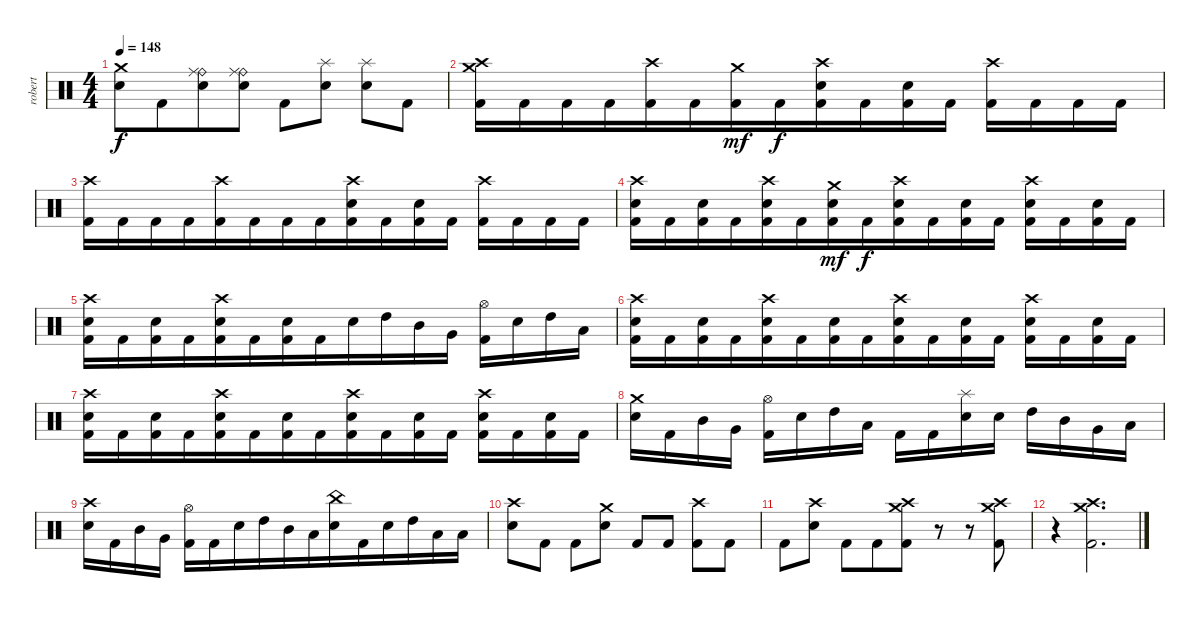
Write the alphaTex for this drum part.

\track ("robert" "robert") {instrument percussion}
\staff {score}
\articulation defaults
\ts (4 4)
\tempo 148
\clef neutral
\ks c
("Electric Snare (hit)" "Crash medium (hit)").8{dy f} "Kick (hit) 2".8{beam merge} ("Electric Snare (hit)" "Ride (bell)" "Ride (middle)").8 ("Electric Snare (hit)" "Ride (bell)" "Ride (middle)").8 "Kick (hit) 2".8 ("Electric Snare (hit)" "Splash (hit)").8 ("Electric Snare (hit)" "Splash (hit)").8 "Kick (hit) 2".8 |
("Kick (hit) 2" "Crash high (hit)" "Crash medium (hit)").16 "Kick (hit) 2".16 "Kick (hit) 2".16 "Kick (hit) 2".16{beam merge} ("Kick (hit) 2" "Crash high (hit)").16 "Kick (hit) 2".16 ("Kick (hit) 2" "Crash medium (hit)").16{dy mf} "Kick (hit) 2".16{dy f beam merge} ("Kick (hit) 2" "Electric Snare (hit)" "Crash high (hit)").16 "Kick (hit) 2".16 ("Electric Snare (hit)" "Kick (hit) 2").16{beam merge} "Kick (hit) 2".16 ("Kick (hit) 2" "Crash high (hit)").16 "Kick (hit) 2".16 "Kick (hit) 2".16 "Kick (hit) 2".16 |
("Kick (hit) 2" "Crash high (hit)").16 "Kick (hit) 2".16 "Kick (hit) 2".16 "Kick (hit) 2".16{beam merge} ("Kick (hit) 2" "Crash high (hit)").16 "Kick (hit) 2".16 "Kick (hit) 2".16 "Kick (hit) 2".16{beam merge} ("Kick (hit) 2" "Electric Snare (hit)" "Crash high (hit)").16 "Kick (hit) 2".16 ("Electric Snare (hit)" "Kick (hit) 2").16{beam merge} "Kick (hit) 2".16 ("Kick (hit) 2" "Crash high (hit)").16 "Kick (hit) 2".16 "Kick (hit) 2".16 "Kick (hit) 2".16 |
("Kick (hit) 2" "Crash high (hit)" "Electric Snare (hit)").16 "Kick (hit) 2".16 ("Kick (hit) 2" "Electric Snare (hit)").16 "Kick (hit) 2".16{beam merge} ("Kick (hit) 2" "Crash high (hit)" "Electric Snare (hit)").16 "Kick (hit) 2".16 ("Kick (hit) 2" "Electric Snare (hit)" "Crash medium (hit)").16{dy mf} "Kick (hit) 2".16{dy f beam merge} ("Kick (hit) 2" "Electric Snare (hit)" "Crash high (hit)").16 "Kick (hit) 2".16 ("Electric Snare (hit)" "Kick (hit) 2").16{beam merge} "Kick (hit) 2".16 ("Kick (hit) 2" "Electric Snare (hit)" "Crash high (hit)").16 "Kick (hit) 2".16 ("Kick (hit) 2" "Electric Snare (hit)").16 "Kick (hit) 2".16 |
("Kick (hit) 2" "Crash high (hit)" "Electric Snare (hit)").16 "Kick (hit) 2".16 ("Kick (hit) 2" "Electric Snare (hit)").16 "Kick (hit) 2".16{beam merge} ("Kick (hit) 2" "Crash high (hit)" "Electric Snare (hit)").16 "Kick (hit) 2".16 ("Kick (hit) 2" "Electric Snare (hit)").16 "Kick (hit) 2".16{beam merge} "Electric Snare (hit)".16 "High Tom (hit)".16 "Mid Tom (hit)".16 "Very Low Tom (hit)".16 ("Hi-Hat (open)" "Kick (hit) 2").16 "Electric Snare (hit)".16 "High Tom (hit)".16 "Low Tom (hit)".16 |
("Kick (hit) 2" "Crash high (hit)" "Electric Snare (hit)").16 "Kick (hit) 2".16 ("Kick (hit) 2" "Electric Snare (hit)").16 "Kick (hit) 2".16{beam merge} ("Kick (hit) 2" "Crash high (hit)" "Electric Snare (hit)").16 "Kick (hit) 2".16 ("Kick (hit) 2" "Electric Snare (hit)").16 "Kick (hit) 2".16{beam merge} ("Kick (hit) 2" "Electric Snare (hit)" "Crash high (hit)").16 "Kick (hit) 2".16 ("Electric Snare (hit)" "Kick (hit) 2").16{beam merge} "Kick (hit) 2".16 ("Kick (hit) 2" "Electric Snare (hit)" "Crash high (hit)").16 "Kick (hit) 2".16 ("Kick (hit) 2" "Electric Snare (hit)").16 "Kick (hit) 2".16 |
("Kick (hit) 2" "Crash high (hit)" "Electric Snare (hit)").16 "Kick (hit) 2".16 ("Kick (hit) 2" "Electric Snare (hit)").16 "Kick (hit) 2".16{beam merge} ("Kick (hit) 2" "Crash high (hit)" "Electric Snare (hit)").16 "Kick (hit) 2".16 ("Kick (hit) 2" "Electric Snare (hit)").16 "Kick (hit) 2".16{beam merge} ("Kick (hit) 2" "Electric Snare (hit)" "Crash high (hit)").16 "Kick (hit) 2".16 ("Electric Snare (hit)" "Kick (hit) 2").16{beam merge} "Kick (hit) 2".16 ("Kick (hit) 2" "Electric Snare (hit)" "Crash high (hit)").16 "Kick (hit) 2".16 ("Kick (hit) 2" "Electric Snare (hit)").16 "Kick (hit) 2".16 |
("Electric Snare (hit)" "Crash medium (hit)").16 "Kick (hit) 2".16 "Mid Tom (hit)".16 "Very Low Tom (hit)".16 ("Hi-Hat (open)" "Kick (hit) 2").16 "Electric Snare (hit)".16 "High Tom (hit)".16 "Low Tom (hit)".16 "Kick (hit) 2".16 "Kick (hit) 2".16 ("Splash (hit)" "Electric Snare (hit)").16 "Electric Snare (hit)".16 "High Tom (hit)".16 "Mid Tom (hit)".16 "Very Low Tom (hit)".16{beam merge} "Low Floor Tom (hit)".16 |
("Crash high (hit)" "Electric Snare (hit)").16 "Kick (hit) 2".16 "Mid Tom (hit)".16{beam merge} "Very Low Tom (hit)".16 ("Hi-Hat (open)" "Kick (hit) 2").16 "Kick (hit) 2".16 "Electric Snare (hit)".16{beam merge} "High Tom (hit)".16{beam merge} "Mid Tom (hit)".16 "Low Tom (hit)".16 ("Electric Snare (hit)" "China (hit)").16 "Kick (hit) 2".16{beam merge} "Electric Snare (hit)".16 "High Tom (hit)".16 "Low Tom (hit)".16 "Low Floor Tom (hit)".16 |
("Crash high (hit)" "Electric Snare (hit)").8 "Kick (hit) 2".8 "Kick (hit) 2".8 ("Crash medium (hit)" "Electric Snare (hit)").8 "Kick (hit) 2".8 "Kick (hit) 2".8 ("Crash high (hit)" "Kick (hit) 2").8 "Kick (hit) 2".8 |
"Kick (hit) 2".8 ("Crash high (hit)" "Electric Snare (hit)").8 "Kick (hit) 2".8 "Kick (hit) 2".8{beam merge} ("Crash medium (hit)" "Crash high (hit)" "Kick (hit) 2").8 r.8 r.8 ("Crash medium (hit)" "Crash high (hit)" "Kick (hit) 2").8 |
r.4 ("Crash medium (hit)" "Crash high (hit)" "Kick (hit) 2").2{d}
